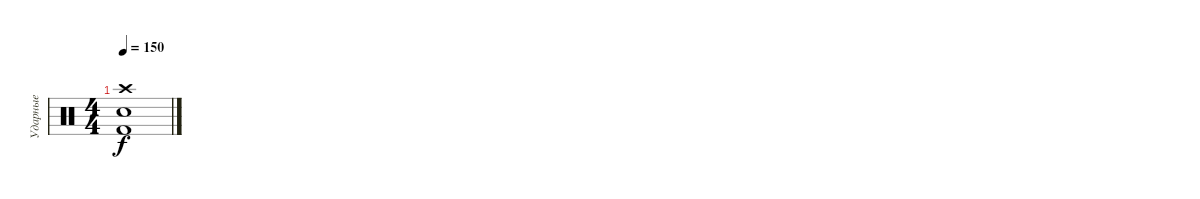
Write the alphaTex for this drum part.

\track ("Ударные" "Ударные") {instrument percussion}
\staff {score}
\articulation defaults
\ts (4 4)
\tempo 150
\clef neutral
\ks c
("Kick (hit) 2" "Crash high (hit)" "Snare (hit) 2").1{dy f}
